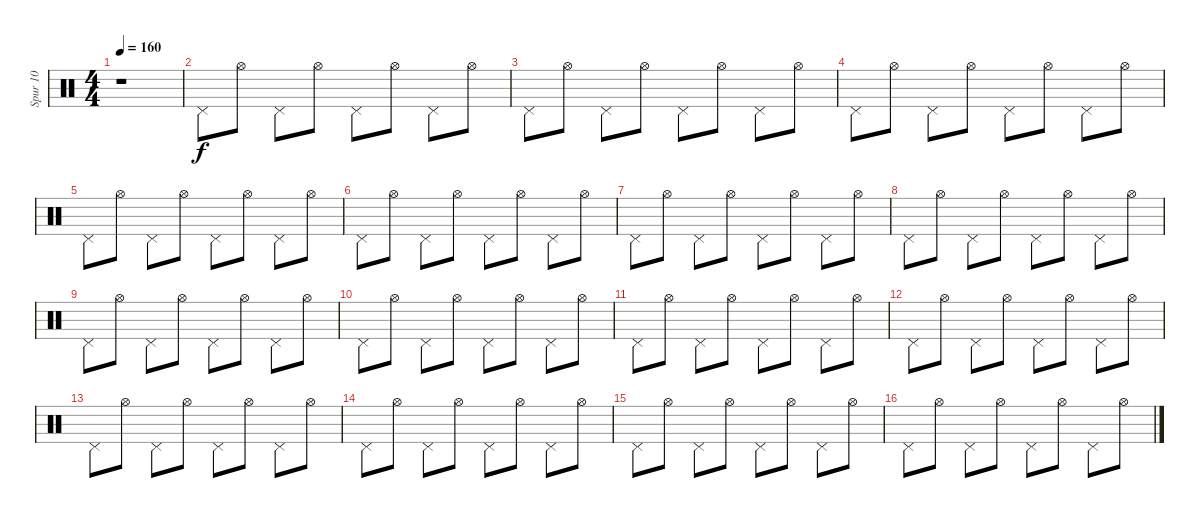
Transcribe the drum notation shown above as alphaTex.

\track ("Spur 10" "Spur 10") {instrument percussion}
\staff {score}
\articulation defaults
\ts (4 4)
\tempo 160
\clef neutral
\ks c
r.1{dy f} |
"Pedal Hi-Hat (hit)".8 "Hi-Hat (open)".8 "Pedal Hi-Hat (hit)".8 "Hi-Hat (open)".8 "Pedal Hi-Hat (hit)".8 "Hi-Hat (open)".8 "Pedal Hi-Hat (hit)".8 "Hi-Hat (open)".8 |
"Pedal Hi-Hat (hit)".8 "Hi-Hat (open)".8 "Pedal Hi-Hat (hit)".8 "Hi-Hat (open)".8 "Pedal Hi-Hat (hit)".8 "Hi-Hat (open)".8 "Pedal Hi-Hat (hit)".8 "Hi-Hat (open)".8 |
"Pedal Hi-Hat (hit)".8 "Hi-Hat (open)".8 "Pedal Hi-Hat (hit)".8 "Hi-Hat (open)".8 "Pedal Hi-Hat (hit)".8 "Hi-Hat (open)".8 "Pedal Hi-Hat (hit)".8 "Hi-Hat (open)".8 |
"Pedal Hi-Hat (hit)".8 "Hi-Hat (open)".8 "Pedal Hi-Hat (hit)".8 "Hi-Hat (open)".8 "Pedal Hi-Hat (hit)".8 "Hi-Hat (open)".8 "Pedal Hi-Hat (hit)".8 "Hi-Hat (open)".8 |
"Pedal Hi-Hat (hit)".8 "Hi-Hat (open)".8 "Pedal Hi-Hat (hit)".8 "Hi-Hat (open)".8 "Pedal Hi-Hat (hit)".8 "Hi-Hat (open)".8 "Pedal Hi-Hat (hit)".8 "Hi-Hat (open)".8 |
"Pedal Hi-Hat (hit)".8 "Hi-Hat (open)".8 "Pedal Hi-Hat (hit)".8 "Hi-Hat (open)".8 "Pedal Hi-Hat (hit)".8 "Hi-Hat (open)".8 "Pedal Hi-Hat (hit)".8 "Hi-Hat (open)".8 |
"Pedal Hi-Hat (hit)".8 "Hi-Hat (open)".8 "Pedal Hi-Hat (hit)".8 "Hi-Hat (open)".8 "Pedal Hi-Hat (hit)".8 "Hi-Hat (open)".8 "Pedal Hi-Hat (hit)".8 "Hi-Hat (open)".8 |
"Pedal Hi-Hat (hit)".8 "Hi-Hat (open)".8 "Pedal Hi-Hat (hit)".8 "Hi-Hat (open)".8 "Pedal Hi-Hat (hit)".8 "Hi-Hat (open)".8 "Pedal Hi-Hat (hit)".8 "Hi-Hat (open)".8 |
"Pedal Hi-Hat (hit)".8 "Hi-Hat (open)".8 "Pedal Hi-Hat (hit)".8 "Hi-Hat (open)".8 "Pedal Hi-Hat (hit)".8 "Hi-Hat (open)".8 "Pedal Hi-Hat (hit)".8 "Hi-Hat (open)".8 |
"Pedal Hi-Hat (hit)".8 "Hi-Hat (open)".8 "Pedal Hi-Hat (hit)".8 "Hi-Hat (open)".8 "Pedal Hi-Hat (hit)".8 "Hi-Hat (open)".8 "Pedal Hi-Hat (hit)".8 "Hi-Hat (open)".8 |
"Pedal Hi-Hat (hit)".8 "Hi-Hat (open)".8 "Pedal Hi-Hat (hit)".8 "Hi-Hat (open)".8 "Pedal Hi-Hat (hit)".8 "Hi-Hat (open)".8 "Pedal Hi-Hat (hit)".8 "Hi-Hat (open)".8 |
"Pedal Hi-Hat (hit)".8 "Hi-Hat (open)".8 "Pedal Hi-Hat (hit)".8 "Hi-Hat (open)".8 "Pedal Hi-Hat (hit)".8 "Hi-Hat (open)".8 "Pedal Hi-Hat (hit)".8 "Hi-Hat (open)".8 |
"Pedal Hi-Hat (hit)".8 "Hi-Hat (open)".8 "Pedal Hi-Hat (hit)".8 "Hi-Hat (open)".8 "Pedal Hi-Hat (hit)".8 "Hi-Hat (open)".8 "Pedal Hi-Hat (hit)".8 "Hi-Hat (open)".8 |
"Pedal Hi-Hat (hit)".8 "Hi-Hat (open)".8 "Pedal Hi-Hat (hit)".8 "Hi-Hat (open)".8 "Pedal Hi-Hat (hit)".8 "Hi-Hat (open)".8 "Pedal Hi-Hat (hit)".8 "Hi-Hat (open)".8 |
"Pedal Hi-Hat (hit)".8 "Hi-Hat (open)".8 "Pedal Hi-Hat (hit)".8 "Hi-Hat (open)".8 "Pedal Hi-Hat (hit)".8 "Hi-Hat (open)".8 "Pedal Hi-Hat (hit)".8 "Hi-Hat (open)".8
